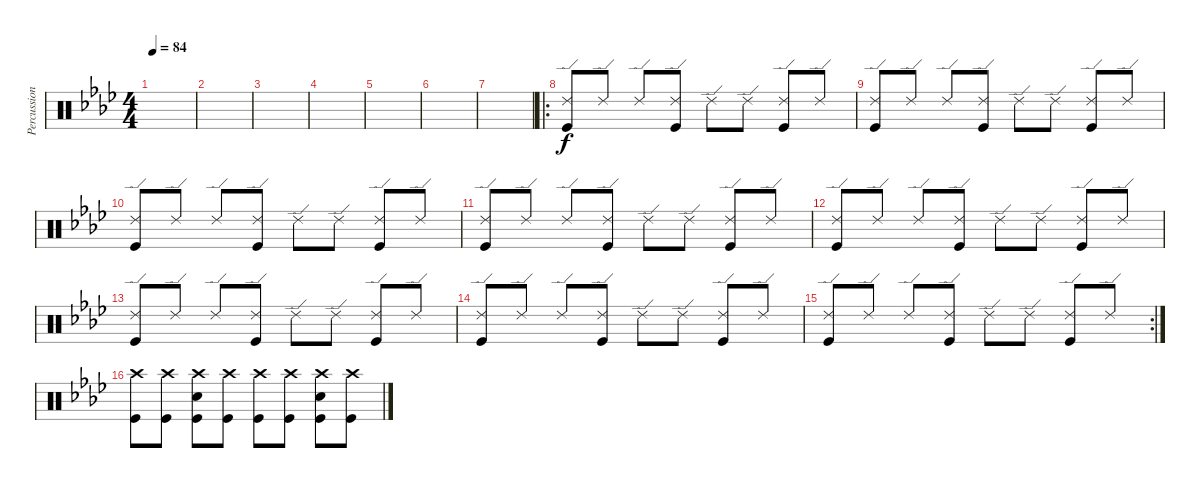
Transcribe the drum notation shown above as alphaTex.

\track ("Percussion" "Percussion") {instrument percussion}
\staff {score}
\articulation defaults
\ts (4 4)
\tempo 84
\clef neutral
\ks ab
|
|
|
|
|
|
|
\ro
("Ride (edge) 2" "Kick (hit)").8 "Ride (edge) 2".8 "Ride (edge) 2".8 ("Ride (edge) 2" "Kick (hit)").8 "Ride (edge) 2".8 "Ride (edge) 2".8 ("Ride (edge) 2" "Kick (hit)").8 "Ride (edge) 2".8 |
("Ride (edge) 2" "Kick (hit)").8 "Ride (edge) 2".8 "Ride (edge) 2".8 ("Ride (edge) 2" "Kick (hit)").8 "Ride (edge) 2".8 "Ride (edge) 2".8 ("Ride (edge) 2" "Kick (hit)").8 "Ride (edge) 2".8 |
("Ride (edge) 2" "Kick (hit)").8 "Ride (edge) 2".8 "Ride (edge) 2".8 ("Ride (edge) 2" "Kick (hit)").8 "Ride (edge) 2".8 "Ride (edge) 2".8 ("Ride (edge) 2" "Kick (hit)").8 "Ride (edge) 2".8 |
("Ride (edge) 2" "Kick (hit)").8 "Ride (edge) 2".8 "Ride (edge) 2".8 ("Ride (edge) 2" "Kick (hit)").8 "Ride (edge) 2".8 "Ride (edge) 2".8 ("Ride (edge) 2" "Kick (hit)").8 "Ride (edge) 2".8 |
("Ride (edge) 2" "Kick (hit)").8 "Ride (edge) 2".8 "Ride (edge) 2".8 ("Ride (edge) 2" "Kick (hit)").8 "Ride (edge) 2".8 "Ride (edge) 2".8 ("Ride (edge) 2" "Kick (hit)").8 "Ride (edge) 2".8 |
("Ride (edge) 2" "Kick (hit)").8 "Ride (edge) 2".8 "Ride (edge) 2".8 ("Ride (edge) 2" "Kick (hit)").8 "Ride (edge) 2".8 "Ride (edge) 2".8 ("Ride (edge) 2" "Kick (hit)").8 "Ride (edge) 2".8 |
("Ride (edge) 2" "Kick (hit)").8 "Ride (edge) 2".8 "Ride (edge) 2".8 ("Ride (edge) 2" "Kick (hit)").8 "Ride (edge) 2".8 "Ride (edge) 2".8 ("Ride (edge) 2" "Kick (hit)").8 "Ride (edge) 2".8 |
\rc 2
("Ride (edge) 2" "Kick (hit)").8 "Ride (edge) 2".8 "Ride (edge) 2".8 ("Ride (edge) 2" "Kick (hit)").8 "Ride (edge) 2".8 "Ride (edge) 2".8 ("Ride (edge) 2" "Kick (hit)").8 "Ride (edge) 2".8 |
("Crash high (hit)" "Kick (hit)").8 ("Kick (hit)" "Crash high (hit)").8 ("Snare (hit) 2" "Kick (hit)" "Crash high (hit)").8 ("Kick (hit)" "Crash high (hit)").8 ("Crash high (hit)" "Kick (hit)").8 ("Kick (hit)" "Crash high (hit)").8 ("Kick (hit)" "Snare (hit) 2" "Crash high (hit)").8 ("Crash high (hit)" "Kick (hit)").8
